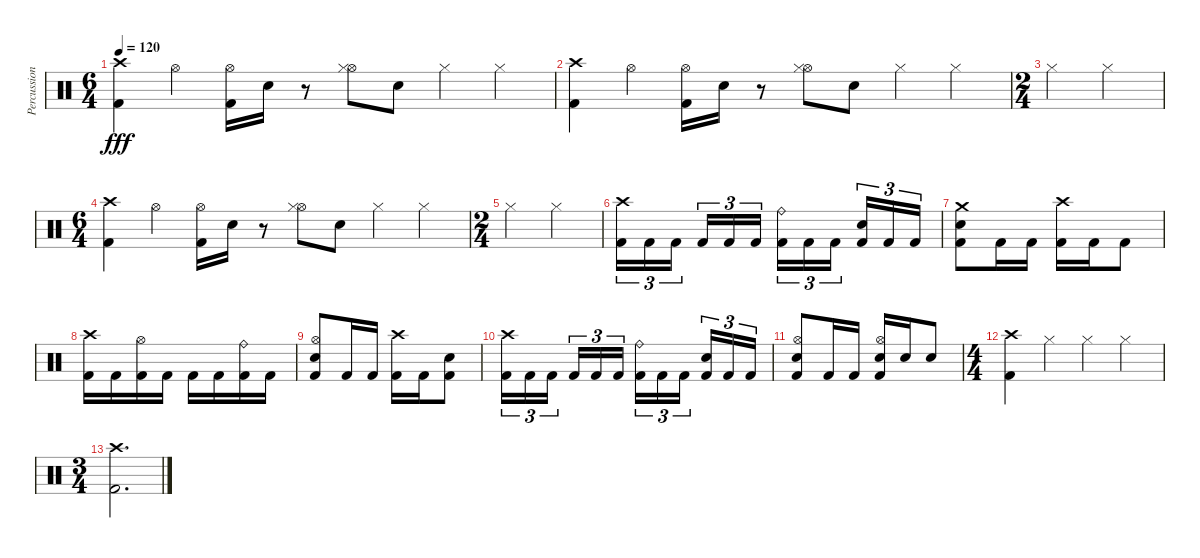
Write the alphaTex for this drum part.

\track ("Percussion" "Percussion") {instrument percussion}
\staff {score}
\articulation defaults
\ts (6 4)
\tempo 120
\clef neutral
\ks c
("Kick (hit) 2" "Crash high (hit)").4{dy fff} "Hi-Hat (open)".4 ("Kick (hit) 2" "Hi-Hat (open)").16 "Electric Snare (hit)".16 r.8 ("Hi-Hat (open)" "Hi-Hat (closed)").8 "Electric Snare (hit)".8 "Hi-Hat (closed)".4 "Hi-Hat (closed)".4 |
("Kick (hit) 2" "Crash high (hit)").4 "Hi-Hat (open)".4 ("Kick (hit) 2" "Hi-Hat (open)").16 "Electric Snare (hit)".16 r.8 ("Hi-Hat (open)" "Hi-Hat (closed)").8 "Electric Snare (hit)".8 "Hi-Hat (closed)".4 "Hi-Hat (closed)".4 |
\ts (2 4)
"Hi-Hat (closed)".4 "Hi-Hat (closed)".4 |
\ts (6 4)
("Kick (hit) 2" "Crash high (hit)").4 "Hi-Hat (open)".4 ("Kick (hit) 2" "Hi-Hat (open)").16 "Electric Snare (hit)".16 r.8 ("Hi-Hat (open)" "Hi-Hat (closed)").8 "Electric Snare (hit)".8 "Hi-Hat (closed)".4 "Hi-Hat (closed)".4 |
\ts (2 4)
"Hi-Hat (closed)".4 "Hi-Hat (closed)".4 |
("Crash high (hit)" "Kick (hit) 2").16{tu (3 2)} "Kick (hit) 2".16{tu (3 2)} "Kick (hit) 2".16{tu (3 2) beam splitsecondary} "Kick (hit) 2".16{tu (3 2)} "Kick (hit) 2".16{tu (3 2)} "Kick (hit) 2".16{tu (3 2)} ("Ride (bell)" "Kick (hit) 2").16{tu (3 2)} "Kick (hit) 2".16{tu (3 2)} "Kick (hit) 2".16{tu (3 2) beam splitsecondary} ("Electric Snare (hit)" "Kick (hit) 2").16{tu (3 2)} "Kick (hit) 2".16{tu (3 2)} "Kick (hit) 2".16{tu (3 2)} |
("Electric Snare (hit)" "Crash medium (hit)" "Kick (hit) 2").8 "Kick (hit) 2".16 "Kick (hit) 2".16 ("Crash high (hit)" "Kick (hit) 2").16 "Kick (hit) 2".16 "Kick (hit) 2".8 |
("Crash high (hit)" "Kick (hit) 2").16 "Kick (hit) 2".16 ("Hi-Hat (open)" "Kick (hit) 2").16 "Kick (hit) 2".16 "Kick (hit) 2".16 "Kick (hit) 2".16 ("Ride (bell)" "Kick (hit) 2").16 "Kick (hit) 2".16 |
("Electric Snare (hit)" "Hi-Hat (open)" "Kick (hit) 2").8 "Kick (hit) 2".16 "Kick (hit) 2".16 ("Crash high (hit)" "Kick (hit) 2").16 "Kick (hit) 2".16 ("Electric Snare (hit)" "Kick (hit) 2").8 |
("Crash high (hit)" "Kick (hit) 2").16{tu (3 2)} "Kick (hit) 2".16{tu (3 2)} "Kick (hit) 2".16{tu (3 2) beam splitsecondary} "Kick (hit) 2".16{tu (3 2)} "Kick (hit) 2".16{tu (3 2)} "Kick (hit) 2".16{tu (3 2)} ("Ride (bell)" "Kick (hit) 2").16{tu (3 2)} "Kick (hit) 2".16{tu (3 2)} "Kick (hit) 2".16{tu (3 2) beam splitsecondary} ("Electric Snare (hit)" "Kick (hit) 2").16{tu (3 2)} "Kick (hit) 2".16{tu (3 2)} "Kick (hit) 2".16{tu (3 2)} |
("Electric Snare (hit)" "Hi-Hat (open)" "Kick (hit) 2").8 "Kick (hit) 2".16 "Kick (hit) 2".16 ("Hi-Hat (open)" "Electric Snare (hit)" "Kick (hit) 2").16 "Electric Snare (hit)".16 "Electric Snare (hit)".8 |
\ts (4 4)
("Crash high (hit)" "Kick (hit) 2").4 "Hi-Hat (closed)".4 "Hi-Hat (closed)".4 "Hi-Hat (closed)".4 |
\ts (3 4)
("Crash high (hit)" "Kick (hit) 2").2{d}
